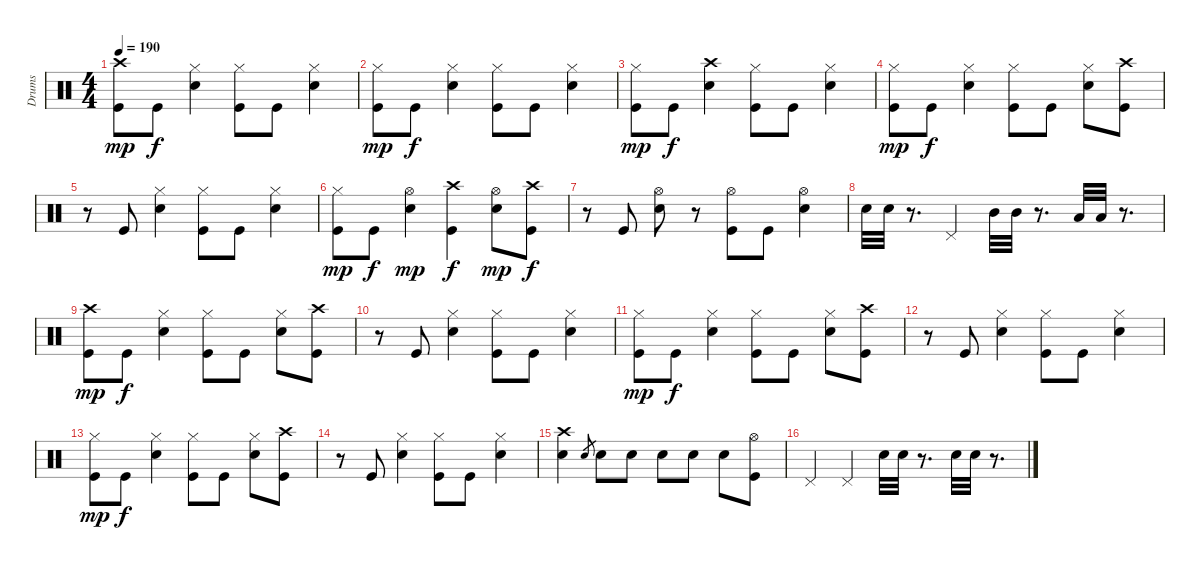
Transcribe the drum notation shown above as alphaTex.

\track ("Drums" "Drums") {instrument percussion}
\staff {score}
\articulation defaults
\ts (4 4)
\tempo 190
\clef neutral
\ks c
("Crash high (hit)" "Kick (hit)").8{dy mp} "Kick (hit)".8{dy f} ("Hi-Hat (closed)" "Snare (hit) 2").4 ("Hi-Hat (closed)" "Kick (hit)").8 "Kick (hit)".8 ("Hi-Hat (closed)" "Snare (hit) 2").4 |
("Hi-Hat (closed)" "Kick (hit)").8{dy mp} "Kick (hit)".8{dy f} ("Hi-Hat (closed)" "Snare (hit) 2").4 ("Hi-Hat (closed)" "Kick (hit)").8 "Kick (hit)".8 ("Hi-Hat (closed)" "Snare (hit) 2").4 |
("Hi-Hat (closed)" "Kick (hit)").8{dy mp} "Kick (hit)".8{dy f} ("Crash high (hit)" "Snare (hit) 2").4 ("Hi-Hat (closed)" "Kick (hit)").8 "Kick (hit)".8 ("Hi-Hat (closed)" "Snare (hit) 2").4 |
("Hi-Hat (closed)" "Kick (hit)").8{dy mp} "Kick (hit)".8{dy f} ("Hi-Hat (closed)" "Snare (hit) 2").4 ("Hi-Hat (closed)" "Kick (hit)").8 "Kick (hit)".8 ("Hi-Hat (closed)" "Snare (hit) 2").8 ("Crash high (hit)" "Kick (hit)").8 |
r.8 "Kick (hit)".8 ("Hi-Hat (closed)" "Snare (hit) 2").4 ("Hi-Hat (closed)" "Kick (hit)").8 "Kick (hit)".8 ("Hi-Hat (closed)" "Snare (hit) 2").4 |
("Hi-Hat (closed)" "Kick (hit)").8{dy mp} "Kick (hit)".8{dy f} ("Hi-Hat (open)" "Snare (hit) 2").4{dy mp} ("Crash high (hit)" "Kick (hit)").4{dy f} ("Hi-Hat (open)" "Snare (hit) 2").8{dy mp} ("Crash high (hit)" "Kick (hit)").8{dy f} |
r.8 "Kick (hit)".8 ("Hi-Hat (open)" "Snare (hit) 2").8 r.8 ("Hi-Hat (open)" "Kick (hit)").8 "Kick (hit)".8 ("Hi-Hat (open)" "Snare (hit) 2").4 |
"Snare (hit) 2".32 "Snare (hit) 2".32 r.8{d} "Pedal Hi-Hat (hit)".4 "Mid Tom (hit)".32 "Mid Tom (hit)".32 r.8{d} "Low Tom (hit)".32 "Low Tom (hit)".32 r.8{d} |
("Crash high (hit)" "Kick (hit)").8{dy mp} "Kick (hit)".8{dy f} ("Hi-Hat (closed)" "Snare (hit) 2").4 ("Hi-Hat (closed)" "Kick (hit)").8 "Kick (hit)".8 ("Hi-Hat (closed)" "Snare (hit) 2").8 ("Crash high (hit)" "Kick (hit)").8 |
r.8 "Kick (hit)".8 ("Hi-Hat (closed)" "Snare (hit) 2").4 ("Hi-Hat (closed)" "Kick (hit)").8 "Kick (hit)".8 ("Hi-Hat (closed)" "Snare (hit) 2").4 |
("Hi-Hat (closed)" "Kick (hit)").8{dy mp} "Kick (hit)".8{dy f} ("Hi-Hat (closed)" "Snare (hit) 2").4 ("Hi-Hat (closed)" "Kick (hit)").8 "Kick (hit)".8 ("Hi-Hat (closed)" "Snare (hit) 2").8 ("Crash high (hit)" "Kick (hit)").8 |
r.8 "Kick (hit)".8 ("Hi-Hat (closed)" "Snare (hit) 2").4 ("Hi-Hat (closed)" "Kick (hit)").8 "Kick (hit)".8 ("Hi-Hat (closed)" "Snare (hit) 2").4 |
("Hi-Hat (closed)" "Kick (hit)").8{dy mp} "Kick (hit)".8{dy f} ("Hi-Hat (closed)" "Snare (hit) 2").4 ("Hi-Hat (closed)" "Kick (hit)").8 "Kick (hit)".8 ("Hi-Hat (closed)" "Snare (hit) 2").8 ("Crash high (hit)" "Kick (hit)").8 |
r.8 "Kick (hit)".8 ("Hi-Hat (closed)" "Snare (hit) 2").4 ("Hi-Hat (closed)" "Kick (hit)").8 "Kick (hit)".8 ("Hi-Hat (closed)" "Snare (hit) 2").4 |
("Crash high (hit)" "Snare (hit) 2").4 "Snare (hit) 2".8{gr} "Snare (hit) 2".8 "Snare (hit) 2".8 "Snare (hit) 2".8 "Snare (hit) 2".8 "Snare (hit) 2".8 ("Hi-Hat (open)" "Kick (hit)").8 |
"Pedal Hi-Hat (hit)".4 "Pedal Hi-Hat (hit)".4 "Snare (hit) 2".32 "Snare (hit) 2".32 r.8{d} "Snare (hit) 2".32 "Snare (hit) 2".32 r.8{d}
